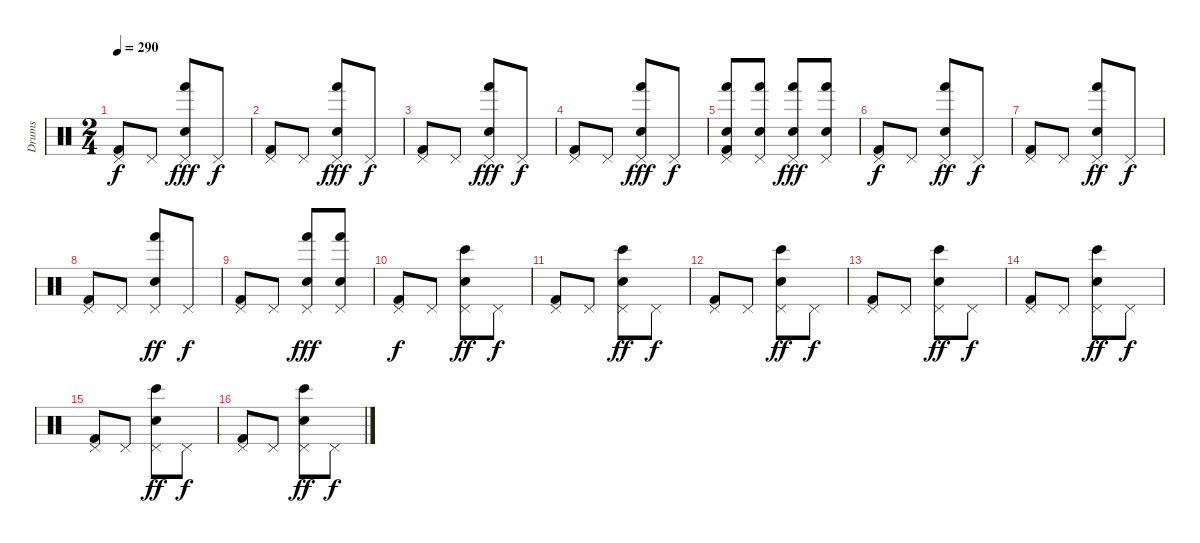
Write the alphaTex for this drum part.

\track ("Drums" "Drums") {instrument percussion}
\staff {score}
\articulation defaults
\ts (2 4)
\tempo 290
\clef neutral
\ks c
("Pedal Hi-Hat (hit)" "Kick (hit) 2").8{dy f} "Pedal Hi-Hat (hit)".8 ("Pedal Hi-Hat (hit)" "Hand (hit)" "Electric Snare (hit)").8{dy fff} "Pedal Hi-Hat (hit)".8{dy f} |
("Pedal Hi-Hat (hit)" "Kick (hit) 2").8 "Pedal Hi-Hat (hit)".8 ("Pedal Hi-Hat (hit)" "Hand (hit)" "Electric Snare (hit)").8{dy fff} "Pedal Hi-Hat (hit)".8{dy f} |
("Pedal Hi-Hat (hit)" "Kick (hit) 2").8 "Pedal Hi-Hat (hit)".8 ("Pedal Hi-Hat (hit)" "Hand (hit)" "Electric Snare (hit)").8{dy fff} "Pedal Hi-Hat (hit)".8{dy f} |
("Pedal Hi-Hat (hit)" "Kick (hit) 2").8 "Pedal Hi-Hat (hit)".8 ("Pedal Hi-Hat (hit)" "Hand (hit)" "Electric Snare (hit)").8{dy fff} "Pedal Hi-Hat (hit)".8{dy f} |
("Pedal Hi-Hat (hit)" "Hand (hit)" "Electric Snare (hit)" "Kick (hit) 2").8 ("Pedal Hi-Hat (hit)" "Hand (hit)" "Electric Snare (hit)").8 ("Pedal Hi-Hat (hit)" "Hand (hit)" "Electric Snare (hit)").8{dy fff} ("Pedal Hi-Hat (hit)" "Hand (hit)" "Electric Snare (hit)").8 |
("Pedal Hi-Hat (hit)" "Kick (hit) 2").8{dy f} "Pedal Hi-Hat (hit)".8 ("Pedal Hi-Hat (hit)" "Hand (hit)" "Electric Snare (hit)").8{dy ff} "Pedal Hi-Hat (hit)".8{dy f} |
("Pedal Hi-Hat (hit)" "Kick (hit) 2").8 "Pedal Hi-Hat (hit)".8 ("Pedal Hi-Hat (hit)" "Hand (hit)" "Electric Snare (hit)").8{dy ff} "Pedal Hi-Hat (hit)".8{dy f} |
("Pedal Hi-Hat (hit)" "Kick (hit) 2").8 "Pedal Hi-Hat (hit)".8 ("Pedal Hi-Hat (hit)" "Hand (hit)" "Electric Snare (hit)").8{dy ff} "Pedal Hi-Hat (hit)".8{dy f} |
("Pedal Hi-Hat (hit)" "Kick (hit) 2").8 "Pedal Hi-Hat (hit)".8 ("Pedal Hi-Hat (hit)" "Hand (hit)" "Electric Snare (hit)").8{dy fff} ("Pedal Hi-Hat (hit)" "Hand (hit)" "Electric Snare (hit)").8 |
("Pedal Hi-Hat (hit)" "Kick (hit) 2").8{dy f} "Pedal Hi-Hat (hit)".8 ("Pedal Hi-Hat (hit)" "Bongo High (hit)" "Electric Snare (hit)").8{dy ff} "Pedal Hi-Hat (hit)".8{dy f} |
("Pedal Hi-Hat (hit)" "Kick (hit) 2").8 "Pedal Hi-Hat (hit)".8 ("Pedal Hi-Hat (hit)" "Bongo High (hit)" "Electric Snare (hit)").8{dy ff} "Pedal Hi-Hat (hit)".8{dy f} |
("Pedal Hi-Hat (hit)" "Kick (hit) 2").8 "Pedal Hi-Hat (hit)".8 ("Pedal Hi-Hat (hit)" "Bongo High (hit)" "Electric Snare (hit)").8{dy ff} "Pedal Hi-Hat (hit)".8{dy f} |
("Pedal Hi-Hat (hit)" "Kick (hit) 2").8 "Pedal Hi-Hat (hit)".8 ("Pedal Hi-Hat (hit)" "Bongo High (hit)" "Electric Snare (hit)").8{dy ff} "Pedal Hi-Hat (hit)".8{dy f} |
("Pedal Hi-Hat (hit)" "Kick (hit) 2").8 "Pedal Hi-Hat (hit)".8 ("Pedal Hi-Hat (hit)" "Bongo High (hit)" "Electric Snare (hit)").8{dy ff} "Pedal Hi-Hat (hit)".8{dy f} |
("Pedal Hi-Hat (hit)" "Kick (hit) 2").8 "Pedal Hi-Hat (hit)".8 ("Pedal Hi-Hat (hit)" "Bongo High (hit)" "Electric Snare (hit)").8{dy ff} "Pedal Hi-Hat (hit)".8{dy f} |
("Pedal Hi-Hat (hit)" "Kick (hit) 2").8 "Pedal Hi-Hat (hit)".8 ("Pedal Hi-Hat (hit)" "Bongo High (hit)" "Electric Snare (hit)").8{dy ff} "Pedal Hi-Hat (hit)".8{dy f}
